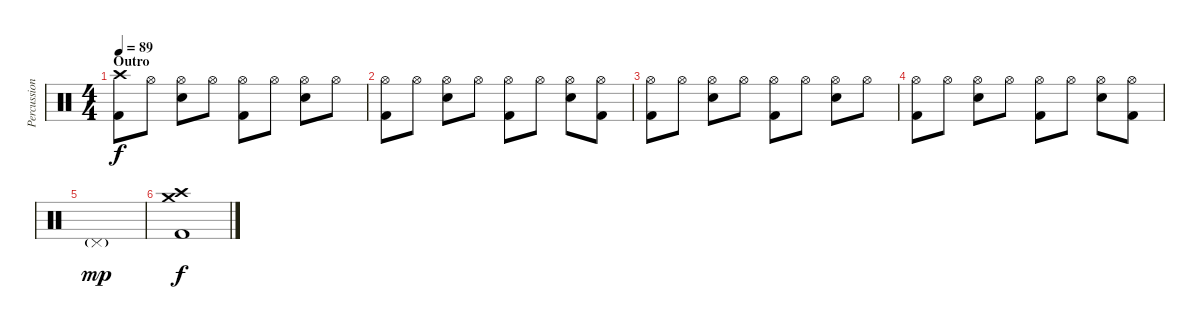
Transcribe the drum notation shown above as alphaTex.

\track ("Percussion" "Percussion") {instrument percussion}
\staff {score}
\articulation defaults
\ts (4 4)
\section ("" "Outro")
\tempo 89
\clef neutral
\ks c
("Crash high (hit)" "Kick (hit) 2").8{dy f} "Hi-Hat (open)".8 ("Hi-Hat (open)" "Electric Snare (hit)").8 "Hi-Hat (open)".8 ("Hi-Hat (open)" "Kick (hit) 2").8 "Hi-Hat (open)".8 ("Hi-Hat (open)" "Electric Snare (hit)").8 "Hi-Hat (open)".8 |
("Hi-Hat (open)" "Kick (hit) 2").8 "Hi-Hat (open)".8 ("Hi-Hat (open)" "Electric Snare (hit)").8 "Hi-Hat (open)".8 ("Hi-Hat (open)" "Kick (hit) 2").8 "Hi-Hat (open)".8 ("Hi-Hat (open)" "Electric Snare (hit)").8 ("Hi-Hat (open)" "Kick (hit) 2").8 |
("Hi-Hat (open)" "Kick (hit) 2").8 "Hi-Hat (open)".8 ("Hi-Hat (open)" "Electric Snare (hit)").8 "Hi-Hat (open)".8 ("Hi-Hat (open)" "Kick (hit) 2").8 "Hi-Hat (open)".8 ("Hi-Hat (open)" "Electric Snare (hit)").8 "Hi-Hat (open)".8 |
("Hi-Hat (open)" "Kick (hit) 2").8 "Hi-Hat (open)".8 ("Hi-Hat (open)" "Electric Snare (hit)").8 "Hi-Hat (open)".8 ("Hi-Hat (open)" "Kick (hit) 2").8 "Hi-Hat (open)".8 ("Hi-Hat (open)" "Electric Snare (hit)").8 ("Hi-Hat (open)" "Kick (hit) 2").8 |
"Pedal Hi-Hat (hit)"{g}.1{dy mp} |
("Crash medium (hit)" "Crash high (hit)" "Kick (hit) 2").1{dy f}
